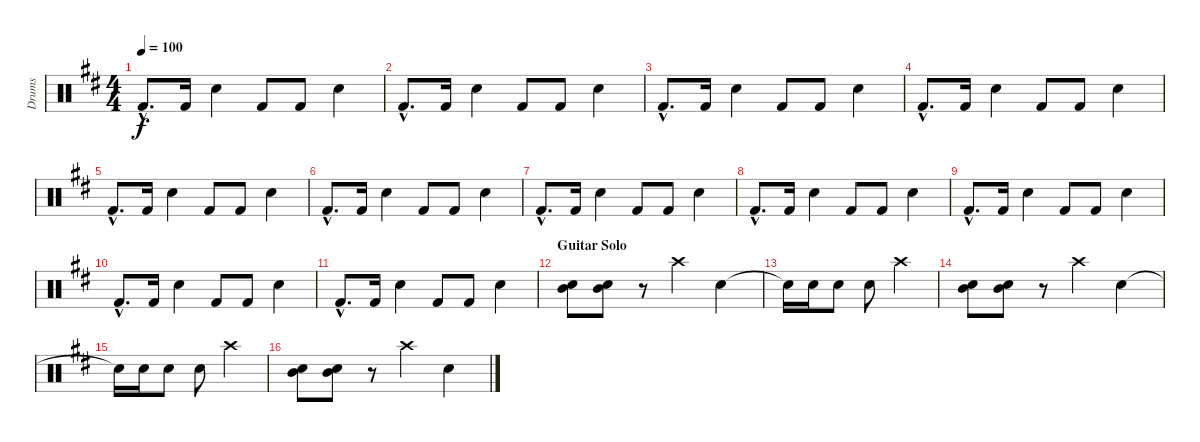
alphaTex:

\track ("Drums" "Drums") {instrument percussion}
\staff {score}
\articulation defaults
\ts (4 4)
\tempo 100
\clef neutral
\ks d "Kick (hit) 2"{hac}.8{d dy f} "Kick (hit) 2".16 "Snare (hit) 2".4 "Kick (hit) 2".8 "Kick (hit) 2".8 "Snare (hit) 2".4
|
"Kick (hit) 2"{hac}.8{d} "Kick (hit) 2".16 "Snare (hit) 2".4 "Kick (hit) 2".8 "Kick (hit) 2".8 "Snare (hit) 2".4 |
"Kick (hit) 2"{hac}.8{d} "Kick (hit) 2".16 "Snare (hit) 2".4 "Kick (hit) 2".8 "Kick (hit) 2".8 "Snare (hit) 2".4 |
"Kick (hit) 2"{hac}.8{d} "Kick (hit) 2".16 "Snare (hit) 2".4 "Kick (hit) 2".8 "Kick (hit) 2".8 "Snare (hit) 2".4 |
"Kick (hit) 2"{hac}.8{d} "Kick (hit) 2".16 "Snare (hit) 2".4 "Kick (hit) 2".8 "Kick (hit) 2".8 "Snare (hit) 2".4 |
"Kick (hit) 2"{hac}.8{d} "Kick (hit) 2".16 "Snare (hit) 2".4 "Kick (hit) 2".8 "Kick (hit) 2".8 "Snare (hit) 2".4 |
"Kick (hit) 2"{hac}.8{d} "Kick (hit) 2".16 "Snare (hit) 2".4 "Kick (hit) 2".8 "Kick (hit) 2".8 "Snare (hit) 2".4 |
"Kick (hit) 2"{hac}.8{d} "Kick (hit) 2".16 "Snare (hit) 2".4 "Kick (hit) 2".8 "Kick (hit) 2".8 "Snare (hit) 2".4 |
"Kick (hit) 2"{hac}.8{d} "Kick (hit) 2".16 "Snare (hit) 2".4 "Kick (hit) 2".8 "Kick (hit) 2".8 "Snare (hit) 2".4 |
"Kick (hit) 2"{hac}.8{d} "Kick (hit) 2".16 "Snare (hit) 2".4 "Kick (hit) 2".8 "Kick (hit) 2".8 "Snare (hit) 2".4 |
"Kick (hit) 2"{hac}.8{d} "Kick (hit) 2".16 "Snare (hit) 2".4 "Kick (hit) 2".8 "Kick (hit) 2".8 "Snare (hit) 2".4 |
\section ("" "Guitar Solo")
("Mid Tom (hit)" "Electric Snare (hit)").8 ("Mid Tom (hit)" "Electric Snare (hit)").8 r.8 "Crash high (hit)".4 "Electric Snare (hit)".4 |
"Electric Snare (hit)"{t}.16 "Electric Snare (hit)".16 "Electric Snare (hit)".8 "Electric Snare (hit)".8 "Crash high (hit)".4 |
("Mid Tom (hit)" "Electric Snare (hit)").8 ("Mid Tom (hit)" "Electric Snare (hit)").8 r.8 "Crash high (hit)".4 "Electric Snare (hit)".4 |
"Electric Snare (hit)"{t}.16 "Electric Snare (hit)".16 "Electric Snare (hit)".8 "Electric Snare (hit)".8 "Crash high (hit)".4 |
("Mid Tom (hit)" "Electric Snare (hit)").8 ("Mid Tom (hit)" "Electric Snare (hit)").8 r.8 "Crash high (hit)".4 "Electric Snare (hit)".4
